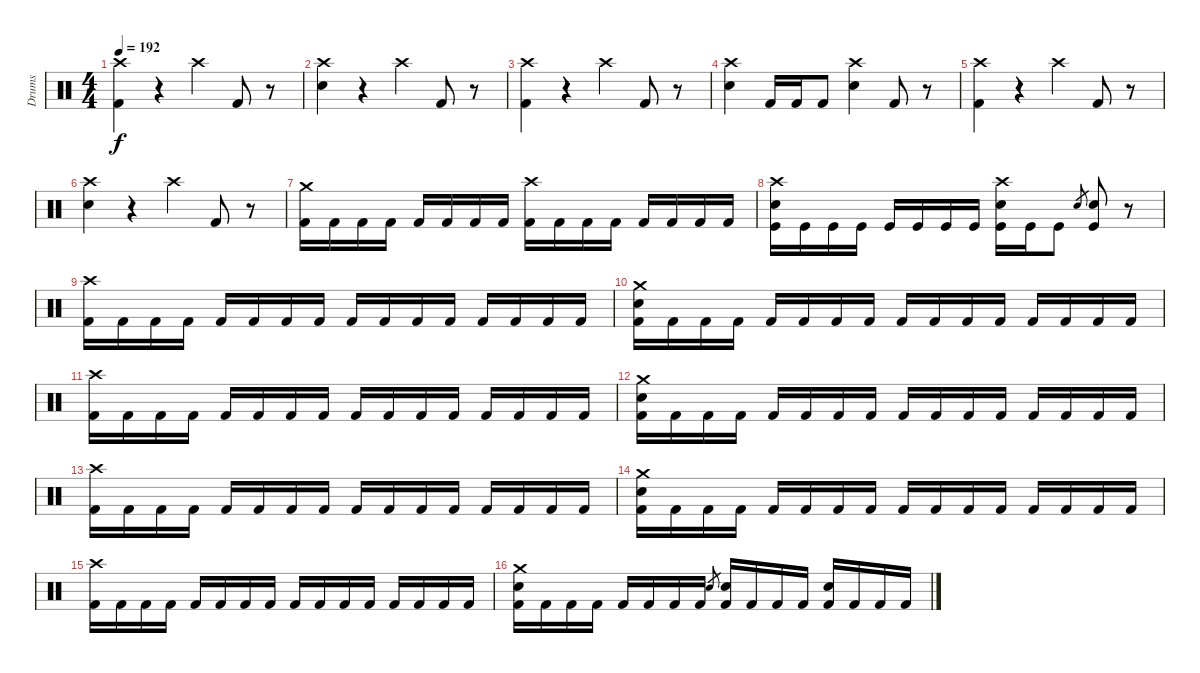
\track ("Drums" "Drums") {instrument percussion}
\staff {score}
\articulation defaults
\ts (4 4)
\tempo 192
\clef neutral
\ks c
("Crash high (hit)" "Kick (hit) 2").4{dy f} r.4 "Crash high (hit)".4 "Kick (hit) 2".8 r.8 |
("Crash high (hit)" "Electric Snare (hit)").4 r.4 "Crash high (hit)".4 "Kick (hit) 2".8 r.8 |
("Crash high (hit)" "Kick (hit) 2").4 r.4 "Crash high (hit)".4 "Kick (hit) 2".8 r.8 |
("Crash high (hit)" "Electric Snare (hit)").4 "Kick (hit) 2".16 "Kick (hit) 2".16 "Kick (hit) 2".8 ("Crash high (hit)" "Electric Snare (hit)").4 "Kick (hit) 2".8 r.8 |
("Crash high (hit)" "Kick (hit) 2").4 r.4 "Crash high (hit)".4 "Kick (hit) 2".8 r.8 |
("Crash high (hit)" "Electric Snare (hit)").4 r.4 "Crash high (hit)".4 "Kick (hit) 2".8 r.8 |
("Crash medium (hit)" "Kick (hit) 2").16 "Kick (hit) 2".16 "Kick (hit) 2".16 "Kick (hit) 2".16 "Kick (hit) 2".16 "Kick (hit) 2".16 "Kick (hit) 2".16 "Kick (hit) 2".16 ("Crash high (hit)" "Kick (hit) 2").16 "Kick (hit) 2".16 "Kick (hit) 2".16 "Kick (hit) 2".16 "Kick (hit) 2".16 "Kick (hit) 2".16 "Kick (hit) 2".16 "Kick (hit) 2".16 |
("Crash high (hit)" "Electric Snare (hit)" "Kick (hit)").16 "Kick (hit)".16 "Kick (hit)".16 "Kick (hit)".16 "Kick (hit)".16 "Kick (hit)".16 "Kick (hit)".16 "Kick (hit)".16 ("Crash high (hit)" "Electric Snare (hit)" "Kick (hit)").16 "Kick (hit)".16 "Kick (hit)".8 "Electric Snare (hit)".8{gr} ("Electric Snare (hit)" "Kick (hit)").8 r.8 |
("Crash high (hit)" "Kick (hit) 2").16 "Kick (hit) 2".16 "Kick (hit) 2".16 "Kick (hit) 2".16 "Kick (hit) 2".16 "Kick (hit) 2".16 "Kick (hit) 2".16 "Kick (hit) 2".16 "Kick (hit) 2".16 "Kick (hit) 2".16 "Kick (hit) 2".16 "Kick (hit) 2".16 "Kick (hit) 2".16 "Kick (hit) 2".16 "Kick (hit) 2".16 "Kick (hit) 2".16 |
("Crash medium (hit)" "Electric Snare (hit)" "Kick (hit) 2").16 "Kick (hit) 2".16 "Kick (hit) 2".16 "Kick (hit) 2".16 "Kick (hit) 2".16 "Kick (hit) 2".16 "Kick (hit) 2".16 "Kick (hit) 2".16 "Kick (hit) 2".16 "Kick (hit) 2".16 "Kick (hit) 2".16 "Kick (hit) 2".16 "Kick (hit) 2".16 "Kick (hit) 2".16 "Kick (hit) 2".16 "Kick (hit) 2".16 |
("Crash high (hit)" "Kick (hit) 2").16 "Kick (hit) 2".16 "Kick (hit) 2".16 "Kick (hit) 2".16 "Kick (hit) 2".16 "Kick (hit) 2".16 "Kick (hit) 2".16 "Kick (hit) 2".16 "Kick (hit) 2".16 "Kick (hit) 2".16 "Kick (hit) 2".16 "Kick (hit) 2".16 "Kick (hit) 2".16 "Kick (hit) 2".16 "Kick (hit) 2".16 "Kick (hit) 2".16 |
("Crash medium (hit)" "Electric Snare (hit)" "Kick (hit) 2").16 "Kick (hit) 2".16 "Kick (hit) 2".16 "Kick (hit) 2".16 "Kick (hit) 2".16 "Kick (hit) 2".16 "Kick (hit) 2".16 "Kick (hit) 2".16 "Kick (hit) 2".16 "Kick (hit) 2".16 "Kick (hit) 2".16 "Kick (hit) 2".16 "Kick (hit) 2".16 "Kick (hit) 2".16 "Kick (hit) 2".16 "Kick (hit) 2".16 |
("Crash high (hit)" "Kick (hit) 2").16 "Kick (hit) 2".16 "Kick (hit) 2".16 "Kick (hit) 2".16 "Kick (hit) 2".16 "Kick (hit) 2".16 "Kick (hit) 2".16 "Kick (hit) 2".16 "Kick (hit) 2".16 "Kick (hit) 2".16 "Kick (hit) 2".16 "Kick (hit) 2".16 "Kick (hit) 2".16 "Kick (hit) 2".16 "Kick (hit) 2".16 "Kick (hit) 2".16 |
("Crash medium (hit)" "Electric Snare (hit)" "Kick (hit) 2").16 "Kick (hit) 2".16 "Kick (hit) 2".16 "Kick (hit) 2".16 "Kick (hit) 2".16 "Kick (hit) 2".16 "Kick (hit) 2".16 "Kick (hit) 2".16 "Kick (hit) 2".16 "Kick (hit) 2".16 "Kick (hit) 2".16 "Kick (hit) 2".16 "Kick (hit) 2".16 "Kick (hit) 2".16 "Kick (hit) 2".16 "Kick (hit) 2".16 |
("Crash high (hit)" "Kick (hit) 2").16 "Kick (hit) 2".16 "Kick (hit) 2".16 "Kick (hit) 2".16 "Kick (hit) 2".16 "Kick (hit) 2".16 "Kick (hit) 2".16 "Kick (hit) 2".16 "Kick (hit) 2".16 "Kick (hit) 2".16 "Kick (hit) 2".16 "Kick (hit) 2".16 "Kick (hit) 2".16 "Kick (hit) 2".16 "Kick (hit) 2".16 "Kick (hit) 2".16 |
("Crash medium (hit)" "Electric Snare (hit)" "Kick (hit) 2").16 "Kick (hit) 2".16 "Kick (hit) 2".16 "Kick (hit) 2".16 "Kick (hit) 2".16 "Kick (hit) 2".16 "Kick (hit) 2".16 "Kick (hit) 2".16 "Electric Snare (hit)".8{gr} ("Electric Snare (hit)" "Kick (hit) 2").16 "Kick (hit) 2".16 "Kick (hit) 2".16 "Kick (hit) 2".16 ("Electric Snare (hit)" "Kick (hit) 2").16 "Kick (hit) 2".16 "Kick (hit) 2".16 "Kick (hit) 2".16
